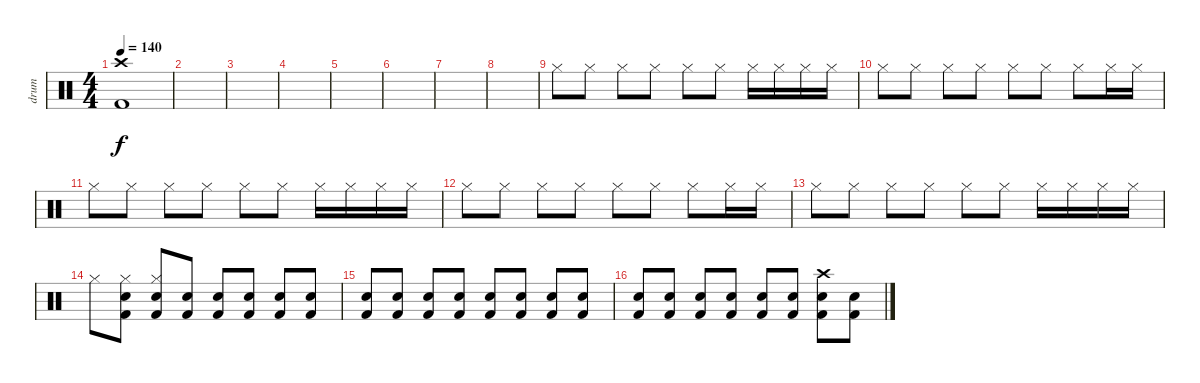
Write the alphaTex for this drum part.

\track ("drum" "drum") {instrument percussion}
\staff {score}
\articulation defaults
\ts (4 4)
\tempo 140
\clef neutral
\ks c
("Crash high (hit)" "Kick (hit) 2").1{dy f} |
|
|
|
|
|
|
|
"Hi-Hat (closed)".8{volume 8} "Hi-Hat (closed)".8 "Hi-Hat (closed)".8 "Hi-Hat (closed)".8 "Hi-Hat (closed)".8 "Hi-Hat (closed)".8 "Hi-Hat (closed)".16 "Hi-Hat (closed)".16 "Hi-Hat (closed)".16 "Hi-Hat (closed)".16 |
"Hi-Hat (closed)".8 "Hi-Hat (closed)".8 "Hi-Hat (closed)".8 "Hi-Hat (closed)".8 "Hi-Hat (closed)".8 "Hi-Hat (closed)".8 "Hi-Hat (closed)".8 "Hi-Hat (closed)".16 "Hi-Hat (closed)".16 |
"Hi-Hat (closed)".8 "Hi-Hat (closed)".8 "Hi-Hat (closed)".8 "Hi-Hat (closed)".8 "Hi-Hat (closed)".8 "Hi-Hat (closed)".8 "Hi-Hat (closed)".16 "Hi-Hat (closed)".16 "Hi-Hat (closed)".16 "Hi-Hat (closed)".16 |
"Hi-Hat (closed)".8 "Hi-Hat (closed)".8 "Hi-Hat (closed)".8 "Hi-Hat (closed)".8 "Hi-Hat (closed)".8 "Hi-Hat (closed)".8 "Hi-Hat (closed)".8 "Hi-Hat (closed)".16 "Hi-Hat (closed)".16 |
"Hi-Hat (closed)".8 "Hi-Hat (closed)".8 "Hi-Hat (closed)".8 "Hi-Hat (closed)".8 "Hi-Hat (closed)".8 "Hi-Hat (closed)".8 "Hi-Hat (closed)".16 "Hi-Hat (closed)".16 "Hi-Hat (closed)".16 "Hi-Hat (closed)".16 |
"Hi-Hat (closed)".8{volume 16} ("Hi-Hat (closed)" "Electric Snare (hit)" "Kick (hit) 2").8 ("Hi-Hat (closed)" "Electric Snare (hit)" "Kick (hit) 2").8 ("Electric Snare (hit)" "Kick (hit) 2").8 ("Electric Snare (hit)" "Kick (hit) 2").8 ("Electric Snare (hit)" "Kick (hit) 2").8 ("Electric Snare (hit)" "Kick (hit) 2").8 ("Electric Snare (hit)" "Kick (hit) 2").8 |
("Electric Snare (hit)" "Kick (hit) 2").8 ("Electric Snare (hit)" "Kick (hit) 2").8 ("Electric Snare (hit)" "Kick (hit) 2").8 ("Electric Snare (hit)" "Kick (hit) 2").8 ("Electric Snare (hit)" "Kick (hit) 2").8 ("Electric Snare (hit)" "Kick (hit) 2").8 ("Electric Snare (hit)" "Kick (hit) 2").8 ("Electric Snare (hit)" "Kick (hit) 2").8 |
("Electric Snare (hit)" "Kick (hit) 2").8 ("Electric Snare (hit)" "Kick (hit) 2").8 ("Electric Snare (hit)" "Kick (hit) 2").8 ("Electric Snare (hit)" "Kick (hit) 2").8 ("Electric Snare (hit)" "Kick (hit) 2").8 ("Electric Snare (hit)" "Kick (hit) 2").8 ("Crash high (hit)" "Electric Snare (hit)" "Kick (hit) 2").8 ("Electric Snare (hit)" "Kick (hit) 2").8
